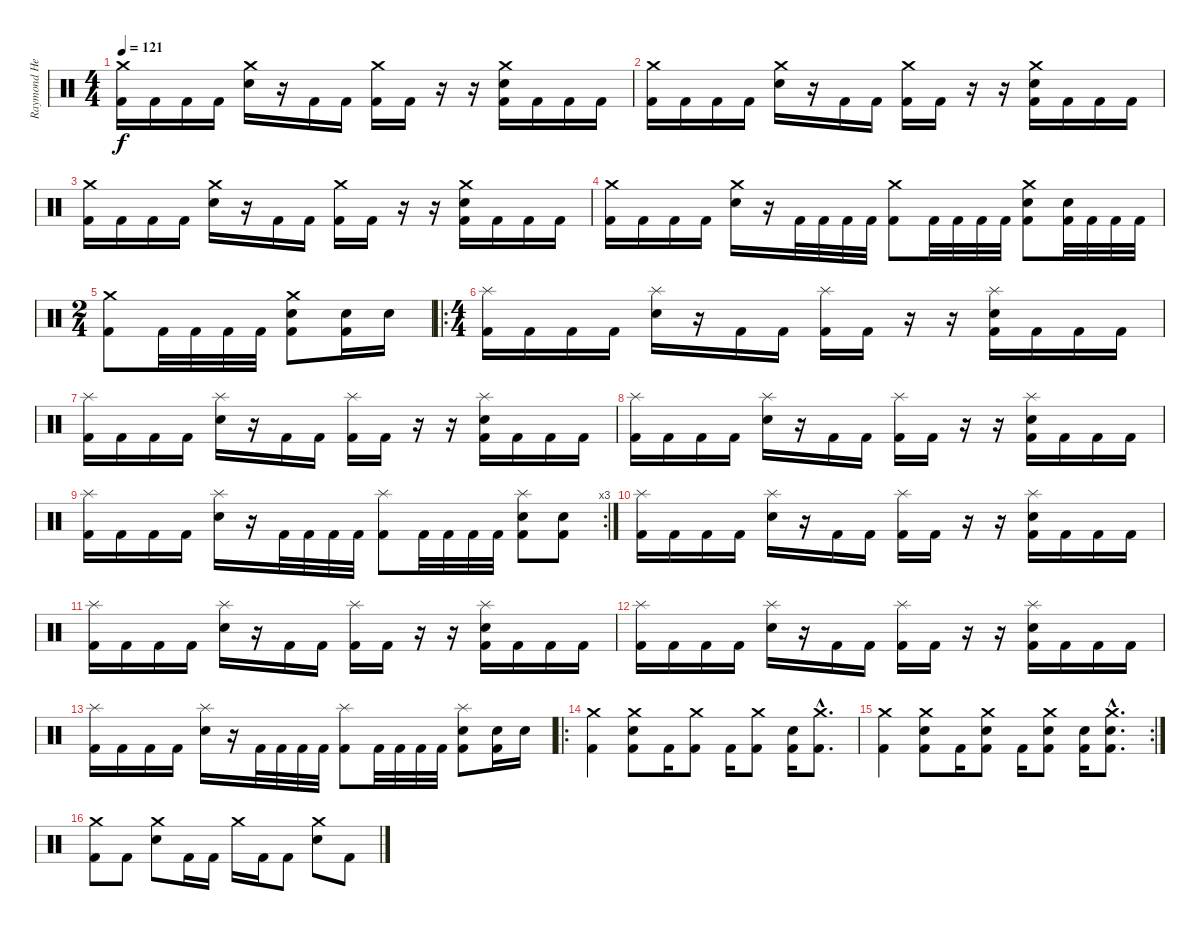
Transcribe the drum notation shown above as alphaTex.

\track ("Raymond Herrerra" "Raymond He") {instrument percussion}
\staff {score}
\articulation defaults
\ts (4 4)
\tempo 121
\clef neutral
\ks c
("Crash medium (hit)" "Kick (hit) 2").16{dy f} "Kick (hit) 2".16 "Kick (hit) 2".16 "Kick (hit) 2".16 ("Crash medium (hit)" "Electric Snare (hit)").16 r.16 "Kick (hit) 2".16 "Kick (hit) 2".16 ("Crash medium (hit)" "Kick (hit) 2").16 "Kick (hit) 2".16 r.16 r.16 ("Crash medium (hit)" "Electric Snare (hit)" "Kick (hit) 2").16 "Kick (hit) 2".16 "Kick (hit) 2".16 "Kick (hit) 2".16 |
("Crash medium (hit)" "Kick (hit) 2").16 "Kick (hit) 2".16 "Kick (hit) 2".16 "Kick (hit) 2".16 ("Crash medium (hit)" "Electric Snare (hit)").16 r.16 "Kick (hit) 2".16 "Kick (hit) 2".16 ("Crash medium (hit)" "Kick (hit) 2").16 "Kick (hit) 2".16 r.16 r.16 ("Crash medium (hit)" "Electric Snare (hit)" "Kick (hit) 2").16 "Kick (hit) 2".16 "Kick (hit) 2".16 "Kick (hit) 2".16 |
("Crash medium (hit)" "Kick (hit) 2").16 "Kick (hit) 2".16 "Kick (hit) 2".16 "Kick (hit) 2".16 ("Crash medium (hit)" "Electric Snare (hit)").16 r.16 "Kick (hit) 2".16 "Kick (hit) 2".16 ("Crash medium (hit)" "Kick (hit) 2").16 "Kick (hit) 2".16 r.16 r.16 ("Crash medium (hit)" "Electric Snare (hit)" "Kick (hit) 2").16 "Kick (hit) 2".16 "Kick (hit) 2".16 "Kick (hit) 2".16 |
("Crash medium (hit)" "Kick (hit) 2").16 "Kick (hit) 2".16 "Kick (hit) 2".16 "Kick (hit) 2".16 ("Crash medium (hit)" "Electric Snare (hit)").16 r.16 "Kick (hit) 2".32 "Kick (hit) 2".32 "Kick (hit) 2".32 "Kick (hit) 2".32 ("Crash medium (hit)" "Kick (hit) 2").8 "Kick (hit) 2".32 "Kick (hit) 2".32 "Kick (hit) 2".32 "Kick (hit) 2".32 ("Crash medium (hit)" "Electric Snare (hit)" "Kick (hit) 2").8 ("Electric Snare (hit)" "Kick (hit) 2").32 "Kick (hit) 2".32 "Kick (hit) 2".32 "Kick (hit) 2".32 |
\ts (2 4)
("Crash medium (hit)" "Kick (hit) 2").8 "Kick (hit) 2".32 "Kick (hit) 2".32 "Kick (hit) 2".32 "Kick (hit) 2".32 ("Crash medium (hit)" "Electric Snare (hit)" "Kick (hit) 2").8 ("Electric Snare (hit)" "Kick (hit) 2").16 "Electric Snare (hit)".16 |
\ro
\ts (4 4)
("Splash (hit)" "Kick (hit) 2").16 "Kick (hit) 2".16 "Kick (hit) 2".16 "Kick (hit) 2".16 ("Splash (hit)" "Electric Snare (hit)").16 r.16 "Kick (hit) 2".16 "Kick (hit) 2".16 ("Splash (hit)" "Kick (hit) 2").16 "Kick (hit) 2".16 r.16 r.16 ("Splash (hit)" "Electric Snare (hit)" "Kick (hit) 2").16 "Kick (hit) 2".16 "Kick (hit) 2".16 "Kick (hit) 2".16 |
("Splash (hit)" "Kick (hit) 2").16 "Kick (hit) 2".16 "Kick (hit) 2".16 "Kick (hit) 2".16 ("Splash (hit)" "Electric Snare (hit)").16 r.16 "Kick (hit) 2".16 "Kick (hit) 2".16 ("Splash (hit)" "Kick (hit) 2").16 "Kick (hit) 2".16 r.16 r.16 ("Splash (hit)" "Electric Snare (hit)" "Kick (hit) 2").16 "Kick (hit) 2".16 "Kick (hit) 2".16 "Kick (hit) 2".16 |
("Splash (hit)" "Kick (hit) 2").16 "Kick (hit) 2".16 "Kick (hit) 2".16 "Kick (hit) 2".16 ("Splash (hit)" "Electric Snare (hit)").16 r.16 "Kick (hit) 2".16 "Kick (hit) 2".16 ("Splash (hit)" "Kick (hit) 2").16 "Kick (hit) 2".16 r.16 r.16 ("Splash (hit)" "Electric Snare (hit)" "Kick (hit) 2").16 "Kick (hit) 2".16 "Kick (hit) 2".16 "Kick (hit) 2".16 |
\rc 3
("Splash (hit)" "Kick (hit) 2").16 "Kick (hit) 2".16 "Kick (hit) 2".16 "Kick (hit) 2".16 ("Splash (hit)" "Electric Snare (hit)").16 r.16 "Kick (hit) 2".32 "Kick (hit) 2".32 "Kick (hit) 2".32 "Kick (hit) 2".32 ("Splash (hit)" "Kick (hit) 2").8 "Kick (hit) 2".32 "Kick (hit) 2".32 "Kick (hit) 2".32 "Kick (hit) 2".32 ("Splash (hit)" "Electric Snare (hit)" "Kick (hit) 2").8 ("Electric Snare (hit)" "Kick (hit) 2").8 |
("Splash (hit)" "Kick (hit) 2").16 "Kick (hit) 2".16 "Kick (hit) 2".16 "Kick (hit) 2".16 ("Splash (hit)" "Electric Snare (hit)").16 r.16 "Kick (hit) 2".16 "Kick (hit) 2".16 ("Splash (hit)" "Kick (hit) 2").16 "Kick (hit) 2".16 r.16 r.16 ("Splash (hit)" "Electric Snare (hit)" "Kick (hit) 2").16 "Kick (hit) 2".16 "Kick (hit) 2".16 "Kick (hit) 2".16 |
("Splash (hit)" "Kick (hit) 2").16 "Kick (hit) 2".16 "Kick (hit) 2".16 "Kick (hit) 2".16 ("Splash (hit)" "Electric Snare (hit)").16 r.16 "Kick (hit) 2".16 "Kick (hit) 2".16 ("Splash (hit)" "Kick (hit) 2").16 "Kick (hit) 2".16 r.16 r.16 ("Splash (hit)" "Electric Snare (hit)" "Kick (hit) 2").16 "Kick (hit) 2".16 "Kick (hit) 2".16 "Kick (hit) 2".16 |
("Splash (hit)" "Kick (hit) 2").16 "Kick (hit) 2".16 "Kick (hit) 2".16 "Kick (hit) 2".16 ("Splash (hit)" "Electric Snare (hit)").16 r.16 "Kick (hit) 2".16 "Kick (hit) 2".16 ("Splash (hit)" "Kick (hit) 2").16 "Kick (hit) 2".16 r.16 r.16 ("Splash (hit)" "Electric Snare (hit)" "Kick (hit) 2").16 "Kick (hit) 2".16 "Kick (hit) 2".16 "Kick (hit) 2".16 |
("Splash (hit)" "Kick (hit) 2").16 "Kick (hit) 2".16 "Kick (hit) 2".16 "Kick (hit) 2".16 ("Splash (hit)" "Electric Snare (hit)").16 r.16 "Kick (hit) 2".32 "Kick (hit) 2".32 "Kick (hit) 2".32 "Kick (hit) 2".32 ("Splash (hit)" "Kick (hit) 2").8 "Kick (hit) 2".32 "Kick (hit) 2".32 "Kick (hit) 2".32 "Kick (hit) 2".32 ("Splash (hit)" "Electric Snare (hit)" "Kick (hit) 2").8 ("Electric Snare (hit)" "Kick (hit) 2").16 "Electric Snare (hit)".16 |
\ro
("Crash medium (hit)" "Kick (hit) 2").4 ("Crash medium (hit)" "Electric Snare (hit)" "Kick (hit) 2").8 "Kick (hit) 2".16 ("Crash medium (hit)" "Kick (hit) 2").8 "Kick (hit) 2".16 ("Crash medium (hit)" "Kick (hit) 2").8 ("Electric Snare (hit)" "Kick (hit) 2").16 ("Crash medium (hit)"{hac} "Kick (hit) 2"{hac}).8{d} |
\rc 2
("Crash medium (hit)" "Kick (hit) 2").4 ("Crash medium (hit)" "Electric Snare (hit)" "Kick (hit) 2").8 "Kick (hit) 2".16 ("Crash medium (hit)" "Electric Snare (hit)" "Kick (hit) 2").8 "Kick (hit) 2".16 ("Crash medium (hit)" "Electric Snare (hit)" "Kick (hit) 2").8 ("Electric Snare (hit)" "Kick (hit) 2").16 ("Crash medium (hit)"{hac} "Electric Snare (hit)"{hac} "Kick (hit) 2"{hac}).8{d} |
("Crash medium (hit)" "Kick (hit) 2").8 "Kick (hit) 2".8 ("Crash medium (hit)" "Electric Snare (hit)").8 "Kick (hit) 2".16 "Kick (hit) 2".16 "Crash medium (hit)".16 "Kick (hit) 2".16 "Kick (hit) 2".8 ("Crash medium (hit)" "Electric Snare (hit)").8 "Kick (hit) 2".8
